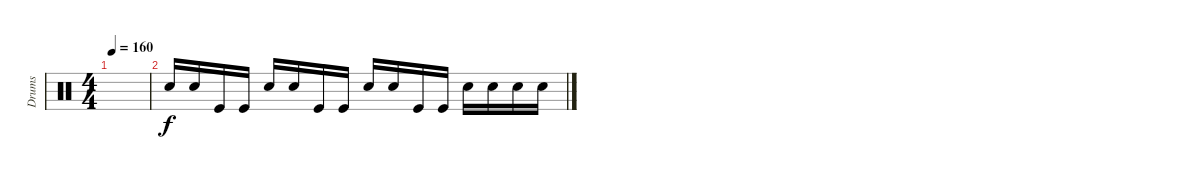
\track ("Drums" "Drums") {instrument percussion}
\staff {score}
\articulation defaults
\ts (4 4)
\tempo 160
\clef neutral
\ks c
|
"Snare (hit) 2".16 "Snare (hit) 2".16 "Kick (hit)".16 "Kick (hit)".16 "Snare (hit) 2".16 "Snare (hit) 2".16 "Kick (hit)".16 "Kick (hit)".16 "Snare (hit) 2".16 "Snare (hit) 2".16 "Kick (hit)".16 "Kick (hit)".16 "Snare (hit) 2".16 "Snare (hit) 2".16 "Snare (hit) 2".16 "Snare (hit) 2".16
